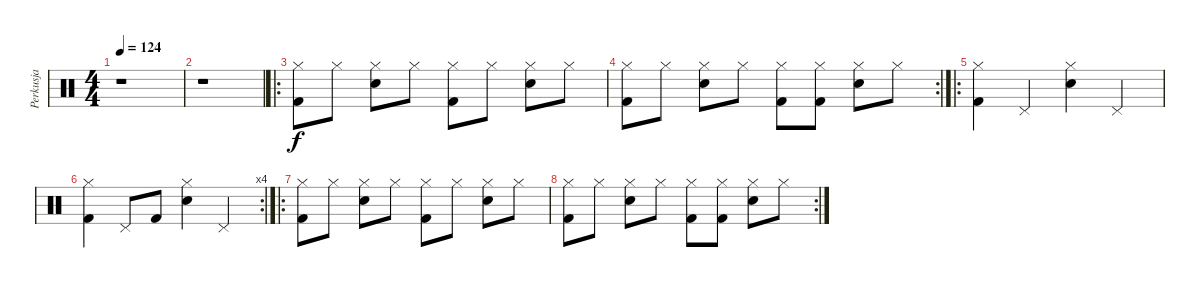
\track ("Perkusja" "Perkusja") {instrument percussion}
\staff {score}
\articulation defaults
\ts (4 4)
\tempo 124
\clef neutral
\ks c
r.1{dy f} |
r.1 |
\ro
("Hi-Hat (closed)" "Kick (hit) 2").8 "Hi-Hat (closed)".8 ("Hi-Hat (closed)" "Snare (hit) 2").8 "Hi-Hat (closed)".8 ("Hi-Hat (closed)" "Kick (hit) 2").8 "Hi-Hat (closed)".8 ("Hi-Hat (closed)" "Snare (hit) 2").8 "Hi-Hat (closed)".8 |
\rc 2
("Hi-Hat (closed)" "Kick (hit) 2").8 "Hi-Hat (closed)".8 ("Hi-Hat (closed)" "Snare (hit) 2").8 "Hi-Hat (closed)".8 ("Hi-Hat (closed)" "Kick (hit) 2").8 ("Hi-Hat (closed)" "Kick (hit) 2").8 ("Hi-Hat (closed)" "Snare (hit) 2").8 "Hi-Hat (closed)".8 |
\ro
("Hi-Hat (closed)" "Kick (hit) 2").4 "Pedal Hi-Hat (hit)".4 ("Hi-Hat (closed)" "Snare (hit) 2").4 "Pedal Hi-Hat (hit)".4 |
\rc 4
("Hi-Hat (closed)" "Kick (hit) 2").4 "Pedal Hi-Hat (hit)".8 "Kick (hit) 2".8 ("Hi-Hat (closed)" "Snare (hit) 2").4 "Pedal Hi-Hat (hit)".4 |
\ro
("Hi-Hat (closed)" "Kick (hit) 2").8 "Hi-Hat (closed)".8 ("Hi-Hat (closed)" "Snare (hit) 2").8 "Hi-Hat (closed)".8 ("Hi-Hat (closed)" "Kick (hit) 2").8 "Hi-Hat (closed)".8 ("Hi-Hat (closed)" "Snare (hit) 2").8 "Hi-Hat (closed)".8 |
\rc 2
("Hi-Hat (closed)" "Kick (hit) 2").8 "Hi-Hat (closed)".8 ("Hi-Hat (closed)" "Snare (hit) 2").8 "Hi-Hat (closed)".8 ("Hi-Hat (closed)" "Kick (hit) 2").8 ("Hi-Hat (closed)" "Kick (hit) 2").8 ("Hi-Hat (closed)" "Snare (hit) 2").8 "Hi-Hat (closed)".8
